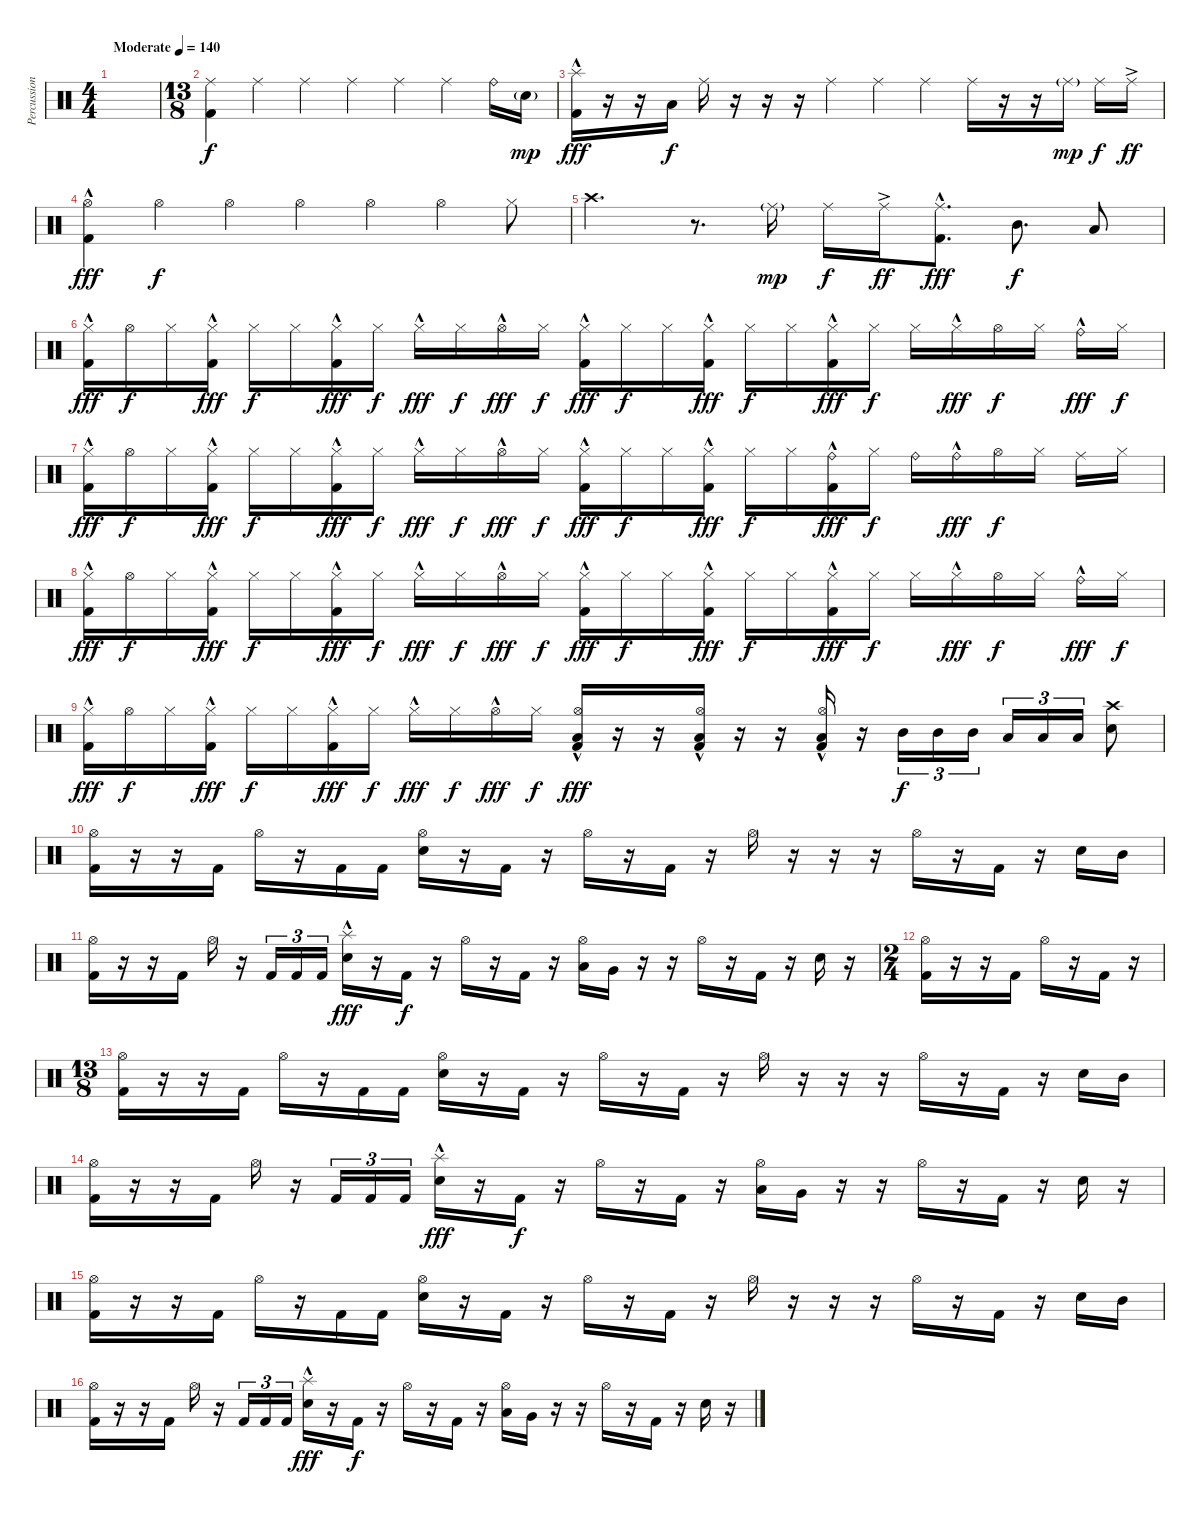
\track ("Percussion" "Percussion") {instrument percussion}
\staff {score}
\articulation defaults
\ts (4 4)
\tempo (140 "Moderate")
\clef neutral
\ks c
|
\ts (13 8)
("Ride (middle)" "Kick (hit) 2").4 "Ride (middle)".4 "Ride (middle)".4 "Ride (middle)".4 "Ride (middle)".4 "Ride (middle)".4 "Ride (bell)".16 "Electric Snare (hit)"{g}.16{dy mp} |
("Splash (hit)"{hac} "Kick (hit) 2").16{dy fff} r.16 r.16 "Low Tom (hit)".16{dy f} "Ride (middle)".16 r.16 r.16 r.16 "Ride (middle)".4 "Ride (middle)".4 "Ride (middle)".4 "Ride (middle)".16 r.16 r.16 "Ride (middle)"{g}.16{dy mp} "Ride (middle)".16{dy f} "Ride (middle)"{ac}.16{dy ff} |
("Hi-Hat (open)"{hac} "Kick (hit) 2").4{dy fff} "Hi-Hat (open)".4{dy f} "Hi-Hat (open)".4 "Hi-Hat (open)".4 "Hi-Hat (open)".4 "Hi-Hat (open)".4 "Hi-Hat (closed)".8 |
"Crash high (hit)".2{d} r.8{d} "Ride (middle)"{g}.16{dy mp} "Ride (middle)".16{dy f} "Ride (middle)"{ac}.16{dy ff} ("Ride (middle)"{hac} "Kick (hit) 2").8{d dy fff} "Mid Tom (hit)".8{d dy f} "Low Tom (hit)".8 |
("Hi-Hat (closed)"{hac} "Kick (hit) 2").16{dy fff} "Hi-Hat (open)".16{dy f} "Hi-Hat (closed)".16 ("Hi-Hat (closed)"{hac} "Kick (hit) 2").16{dy fff} "Hi-Hat (closed)".16{dy f} "Hi-Hat (closed)".16 ("Hi-Hat (closed)"{hac} "Kick (hit) 2").16{dy fff} "Hi-Hat (closed)".16{dy f} "Hi-Hat (closed)"{hac}.16{dy fff} "Hi-Hat (closed)".16{dy f} "Hi-Hat (open)"{hac}.16{dy fff} "Hi-Hat (closed)".16{dy f} ("Hi-Hat (closed)"{hac} "Kick (hit) 2").16{dy fff} "Hi-Hat (closed)".16{dy f} "Hi-Hat (closed)".16 ("Hi-Hat (closed)"{hac} "Kick (hit) 2").16{dy fff} "Hi-Hat (closed)".16{dy f} "Hi-Hat (closed)".16 ("Hi-Hat (closed)"{hac} "Kick (hit) 2").16{dy fff} "Hi-Hat (closed)".16{dy f} "Hi-Hat (closed)".16 "Hi-Hat (closed)"{hac}.16{dy fff} "Hi-Hat (open)".16{dy f} "Hi-Hat (closed)".16 "Ride (bell)"{hac}.16{dy fff} "Hi-Hat (closed)".16{dy f} |
("Hi-Hat (closed)"{hac} "Kick (hit) 2").16{dy fff} "Hi-Hat (open)".16{dy f} "Hi-Hat (closed)".16 ("Hi-Hat (closed)"{hac} "Kick (hit) 2").16{dy fff} "Hi-Hat (closed)".16{dy f} "Hi-Hat (closed)".16 ("Hi-Hat (closed)"{hac} "Kick (hit) 2").16{dy fff} "Hi-Hat (closed)".16{dy f} "Hi-Hat (closed)"{hac}.16{dy fff} "Hi-Hat (closed)".16{dy f} "Hi-Hat (open)"{hac}.16{dy fff} "Hi-Hat (closed)".16{dy f} ("Hi-Hat (closed)"{hac} "Kick (hit) 2").16{dy fff} "Hi-Hat (closed)".16{dy f} "Hi-Hat (closed)".16 ("Hi-Hat (closed)"{hac} "Kick (hit) 2").16{dy fff} "Hi-Hat (closed)".16{dy f} "Hi-Hat (closed)".16 ("Ride (bell)"{hac} "Kick (hit) 2").16{dy fff} "Hi-Hat (closed)".16{dy f} "Ride (bell)".16 "Ride (bell)"{hac}.16{dy fff} "Hi-Hat (open)".16{dy f} "Hi-Hat (closed)".16 "Ride (middle)".16 "Hi-Hat (closed)".16 |
("Hi-Hat (closed)"{hac} "Kick (hit) 2").16{dy fff} "Hi-Hat (open)".16{dy f} "Hi-Hat (closed)".16 ("Hi-Hat (closed)"{hac} "Kick (hit) 2").16{dy fff} "Hi-Hat (closed)".16{dy f} "Hi-Hat (closed)".16 ("Hi-Hat (closed)"{hac} "Kick (hit) 2").16{dy fff} "Hi-Hat (closed)".16{dy f} "Hi-Hat (closed)"{hac}.16{dy fff} "Hi-Hat (closed)".16{dy f} "Hi-Hat (open)"{hac}.16{dy fff} "Hi-Hat (closed)".16{dy f} ("Hi-Hat (closed)"{hac} "Kick (hit) 2").16{dy fff} "Hi-Hat (closed)".16{dy f} "Hi-Hat (closed)".16 ("Hi-Hat (closed)"{hac} "Kick (hit) 2").16{dy fff} "Hi-Hat (closed)".16{dy f} "Hi-Hat (closed)".16 ("Hi-Hat (closed)"{hac} "Kick (hit) 2").16{dy fff} "Hi-Hat (closed)".16{dy f} "Hi-Hat (closed)".16 "Hi-Hat (closed)"{hac}.16{dy fff} "Hi-Hat (open)".16{dy f} "Hi-Hat (closed)".16 "Ride (bell)"{hac}.16{dy fff} "Hi-Hat (closed)".16{dy f} |
("Hi-Hat (closed)"{hac} "Kick (hit) 2").16{dy fff} "Hi-Hat (open)".16{dy f} "Hi-Hat (closed)".16 ("Hi-Hat (closed)"{hac} "Kick (hit) 2").16{dy fff} "Hi-Hat (closed)".16{dy f} "Hi-Hat (closed)".16 ("Hi-Hat (closed)"{hac} "Kick (hit) 2").16{dy fff} "Hi-Hat (closed)".16{dy f} "Hi-Hat (closed)"{hac}.16{dy fff} "Hi-Hat (closed)".16{dy f} "Hi-Hat (open)"{hac}.16{dy fff} "Hi-Hat (closed)".16{dy f} ("Hi-Hat (open)"{hac} "Low Floor Tom (hit)" "Kick (hit) 2").16{dy fff} r.16 r.16 ("Hi-Hat (open)"{hac} "Low Floor Tom (hit)" "Kick (hit) 2").16 r.16 r.16 ("Hi-Hat (open)"{hac} "Low Floor Tom (hit)" "Kick (hit) 2").16 r.16 "Mid Tom (hit)".16{tu (3 2) dy f} "Mid Tom (hit)".16{tu (3 2)} "Mid Tom (hit)".16{tu (3 2)} "Low Tom (hit)".16{tu (3 2)} "Low Tom (hit)".16{tu (3 2)} "Low Tom (hit)".16{tu (3 2)} ("Crash high (hit)" "Electric Snare (hit)").8 |
("Hi-Hat (open)" "Kick (hit) 2").16 r.16 r.16 "Kick (hit) 2".16 "Hi-Hat (open)".16 r.16 "Kick (hit) 2".16 "Kick (hit) 2".16 ("Hi-Hat (open)" "Electric Snare (hit)").16 r.16 "Kick (hit) 2".16 r.16 "Hi-Hat (open)".16 r.16 "Kick (hit) 2".16 r.16 "Hi-Hat (open)".16 r.16 r.16 r.16 "Hi-Hat (open)".16 r.16 "Kick (hit) 2".16 r.16 "Electric Snare (hit)".16 "Mid Tom (hit)".16 |
("Hi-Hat (open)" "Kick (hit) 2").16 r.16 r.16 "Kick (hit) 2".16 "Hi-Hat (open)".16 r.16 "Kick (hit) 2".16{tu (3 2)} "Kick (hit) 2".16{tu (3 2)} "Kick (hit) 2".16{tu (3 2)} ("Splash (hit)"{hac} "Electric Snare (hit)").16{dy fff} r.16 "Kick (hit) 2".16{dy f} r.16 "Hi-Hat (open)".16 r.16 "Kick (hit) 2".16 r.16 ("Hi-Hat (open)" "Low Tom (hit)").16 "Very Low Tom (hit)".16 r.16 r.16 "Hi-Hat (open)".16 r.16 "Kick (hit) 2".16 r.16 "Electric Snare (hit)".16 r.16 |
\ts (2 4)
("Hi-Hat (open)" "Kick (hit) 2").16 r.16 r.16 "Kick (hit) 2".16 "Hi-Hat (open)".16 r.16 "Kick (hit) 2".16 r.16 |
\ts (13 8)
("Hi-Hat (open)" "Kick (hit) 2").16 r.16 r.16 "Kick (hit) 2".16 "Hi-Hat (open)".16 r.16 "Kick (hit) 2".16 "Kick (hit) 2".16 ("Hi-Hat (open)" "Electric Snare (hit)").16 r.16 "Kick (hit) 2".16 r.16 "Hi-Hat (open)".16 r.16 "Kick (hit) 2".16 r.16 "Hi-Hat (open)".16 r.16 r.16 r.16 "Hi-Hat (open)".16 r.16 "Kick (hit) 2".16 r.16 "Electric Snare (hit)".16 "Mid Tom (hit)".16 |
("Hi-Hat (open)" "Kick (hit) 2").16 r.16 r.16 "Kick (hit) 2".16 "Hi-Hat (open)".16 r.16 "Kick (hit) 2".16{tu (3 2)} "Kick (hit) 2".16{tu (3 2)} "Kick (hit) 2".16{tu (3 2)} ("Splash (hit)"{hac} "Electric Snare (hit)").16{dy fff} r.16 "Kick (hit) 2".16{dy f} r.16 "Hi-Hat (open)".16 r.16 "Kick (hit) 2".16 r.16 ("Hi-Hat (open)" "Low Tom (hit)").16 "Very Low Tom (hit)".16 r.16 r.16 "Hi-Hat (open)".16 r.16 "Kick (hit) 2".16 r.16 "Electric Snare (hit)".16 r.16 |
("Hi-Hat (open)" "Kick (hit) 2").16 r.16 r.16 "Kick (hit) 2".16 "Hi-Hat (open)".16 r.16 "Kick (hit) 2".16 "Kick (hit) 2".16 ("Hi-Hat (open)" "Electric Snare (hit)").16 r.16 "Kick (hit) 2".16 r.16 "Hi-Hat (open)".16 r.16 "Kick (hit) 2".16 r.16 "Hi-Hat (open)".16 r.16 r.16 r.16 "Hi-Hat (open)".16 r.16 "Kick (hit) 2".16 r.16 "Electric Snare (hit)".16 "Mid Tom (hit)".16 |
("Hi-Hat (open)" "Kick (hit) 2").16 r.16 r.16 "Kick (hit) 2".16 "Hi-Hat (open)".16 r.16 "Kick (hit) 2".16{tu (3 2)} "Kick (hit) 2".16{tu (3 2)} "Kick (hit) 2".16{tu (3 2)} ("Splash (hit)"{hac} "Electric Snare (hit)").16{dy fff} r.16 "Kick (hit) 2".16{dy f} r.16 "Hi-Hat (open)".16 r.16 "Kick (hit) 2".16 r.16 ("Hi-Hat (open)" "Low Tom (hit)").16 "Very Low Tom (hit)".16 r.16 r.16 "Hi-Hat (open)".16 r.16 "Kick (hit) 2".16 r.16 "Electric Snare (hit)".16 r.16
